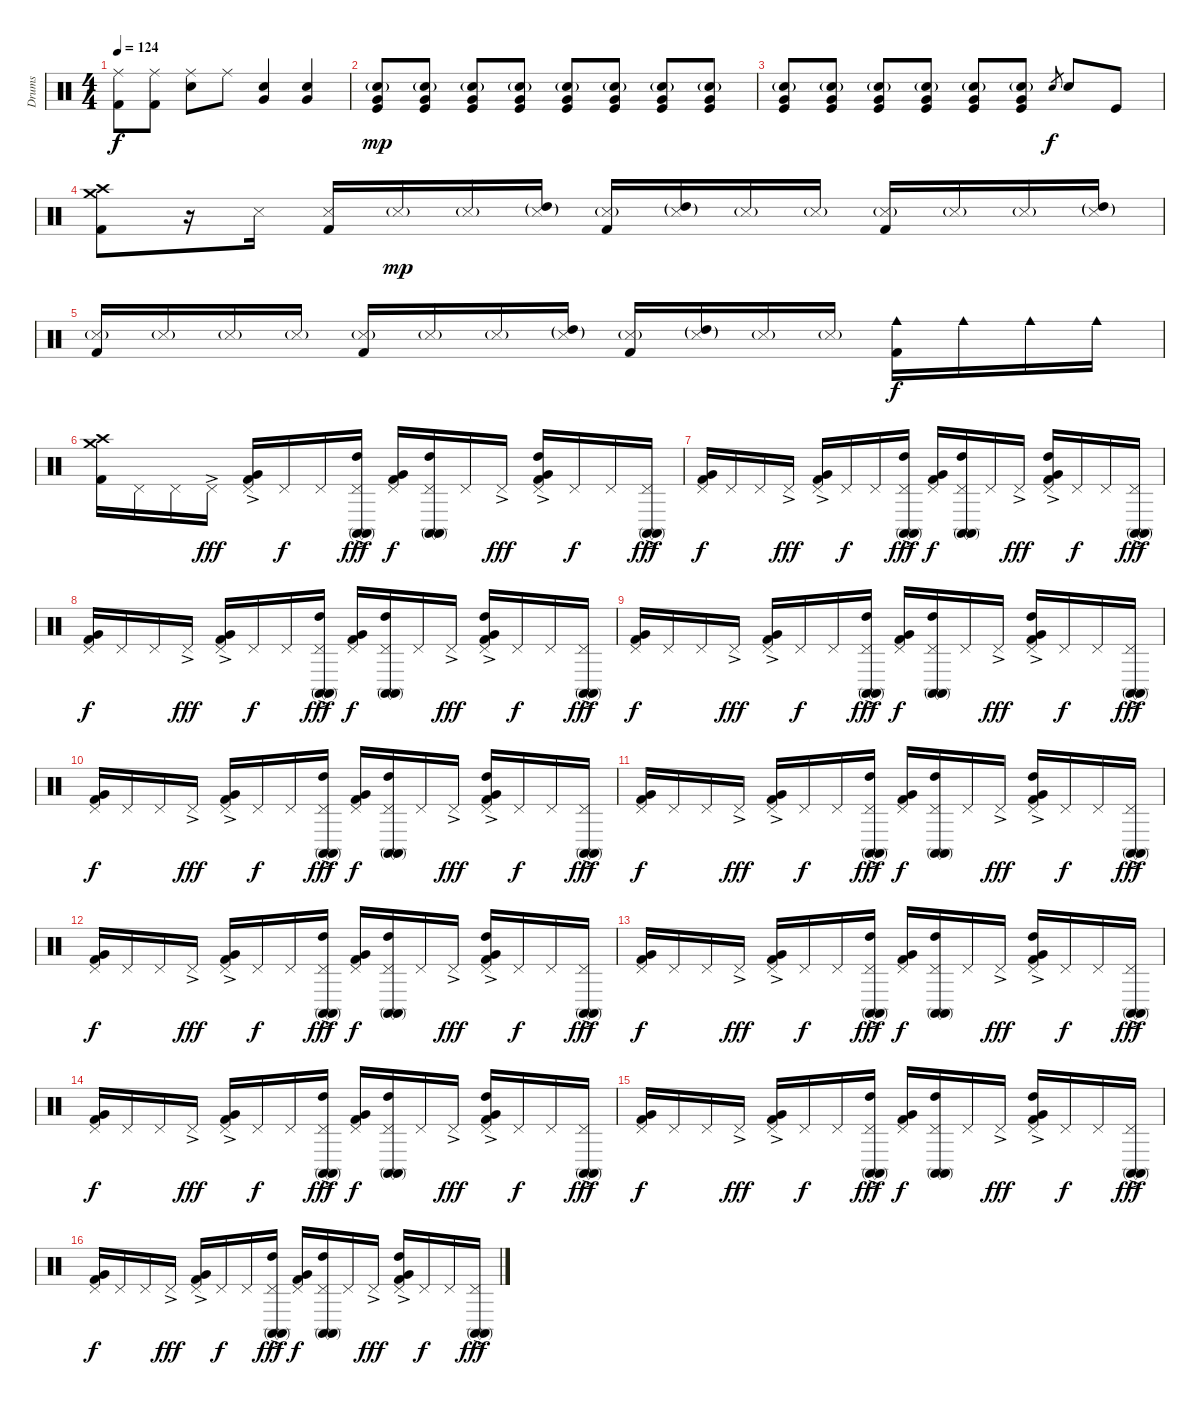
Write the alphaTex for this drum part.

\track ("Drums" "Drums") {instrument percussion}
\staff {score}
\articulation defaults
\ts (4 4)
\tempo 124
\clef neutral
\ks c
("Ride (middle)" "Kick (hit) 2").8{dy f} ("Ride (middle)" "Kick (hit) 2").8 ("Ride (middle)" "Snare (hit) 2").8 "Ride (middle)".8 ("Very Low Tom (hit)" "Snare (hit) 2").4 ("Very Low Tom (hit)" "Snare (hit) 2").4 |
("Very Low Tom (hit)" "Kick (hit)" "Electric Snare (hit)"{g}).8{dy mp} ("Very Low Tom (hit)" "Kick (hit)" "Electric Snare (hit)"{g}).8 ("Very Low Tom (hit)" "Kick (hit)" "Electric Snare (hit)"{g}).8 ("Very Low Tom (hit)" "Kick (hit)" "Electric Snare (hit)"{g}).8 ("Very Low Tom (hit)" "Kick (hit)" "Electric Snare (hit)"{g}).8 ("Very Low Tom (hit)" "Kick (hit)" "Electric Snare (hit)"{g}).8 ("Very Low Tom (hit)" "Kick (hit)" "Electric Snare (hit)"{g}).8 ("Very Low Tom (hit)" "Kick (hit)" "Electric Snare (hit)"{g}).8 |
("Very Low Tom (hit)" "Kick (hit)" "Electric Snare (hit)"{g}).8 ("Very Low Tom (hit)" "Kick (hit)" "Electric Snare (hit)"{g}).8 ("Very Low Tom (hit)" "Kick (hit)" "Electric Snare (hit)"{g}).8 ("Very Low Tom (hit)" "Kick (hit)" "Electric Snare (hit)"{g}).8 ("Very Low Tom (hit)" "Kick (hit)" "Electric Snare (hit)"{g}).8 ("Very Low Tom (hit)" "Kick (hit)" "Electric Snare (hit)"{g}).8 "Snare (hit) 2".8{gr dy f} "Snare (hit) 2".8 "Kick (hit)".8 |
\section ("" "")
("Crash high (hit)" "Crash medium (hit)" "Kick (hit) 2").8 r.16 "Metronome (hit)".16 ("Metronome (hit)" "Kick (hit) 2").16 "Metronome (hit)"{g}.16{dy mp} "Metronome (hit)"{g}.16 ("Metronome (hit)"{g} "High Tom (hit)"{g}).16 ("Metronome (hit)"{g} "Kick (hit) 2").16 ("Metronome (hit)"{g} "High Tom (hit)"{g}).16 "Metronome (hit)"{g}.16 "Metronome (hit)"{g}.16 ("Metronome (hit)"{g} "Kick (hit) 2").16 "Metronome (hit)"{g}.16 "Metronome (hit)"{g}.16 ("Metronome (hit)"{g} "High Tom (hit)"{g}).16 |
("Metronome (hit)"{g} "Kick (hit) 2").16 "Metronome (hit)"{g}.16 "Metronome (hit)"{g}.16 "Metronome (hit)"{g}.16 ("Metronome (hit)"{g} "Kick (hit) 2").16 "Metronome (hit)"{g}.16 "Metronome (hit)"{g}.16 ("Metronome (hit)"{g} "High Tom (hit)"{g}).16 ("Metronome (hit)"{g} "Kick (hit) 2").16 ("Metronome (hit)"{g} "High Tom (hit)"{g}).16 "Metronome (hit)"{g}.16 "Metronome (hit)"{g}.16 ("Cowbell medium (hit)" "Kick (hit) 2").16{dy f} "Cowbell medium (hit)".16 "Cowbell medium (hit)".16 "Cowbell medium (hit)".16 |
("Crash high (hit)" "Crash medium (hit)" "Kick (hit) 2").16 "Pedal Hi-Hat (hit)".16 "Pedal Hi-Hat (hit)".16 "Pedal Hi-Hat (hit)"{ac}.16{dy fff} ("Pedal Hi-Hat (hit)"{ac} "Kick (hit) 2" "Very Low Tom (hit)").16 "Pedal Hi-Hat (hit)".16{dy f} "Pedal Hi-Hat (hit)".16 ("Pedal Hi-Hat (hit)"{ac} "Conga high (mute)" "Conga high (mute)" "High Tom (hit)").16{dy fff} ("Pedal Hi-Hat (hit)" "Kick (hit) 2" "Very Low Tom (hit)").16{dy f} ("Pedal Hi-Hat (hit)" "Conga high (mute)" "Conga high (mute)" "High Tom (hit)").16 "Pedal Hi-Hat (hit)".16 "Pedal Hi-Hat (hit)"{ac}.16{dy fff} ("Pedal Hi-Hat (hit)"{ac} "Kick (hit) 2" "Very Low Tom (hit)" "High Tom (hit)").16 "Pedal Hi-Hat (hit)".16{dy f} "Pedal Hi-Hat (hit)".16 ("Pedal Hi-Hat (hit)"{ac} "Conga high (mute)" "Conga high (mute)").16{dy fff} |
("Pedal Hi-Hat (hit)" "Kick (hit) 2" "Very Low Tom (hit)").16{dy f} "Pedal Hi-Hat (hit)".16 "Pedal Hi-Hat (hit)".16 "Pedal Hi-Hat (hit)"{ac}.16{dy fff} ("Pedal Hi-Hat (hit)"{ac} "Kick (hit) 2" "Very Low Tom (hit)").16 "Pedal Hi-Hat (hit)".16{dy f} "Pedal Hi-Hat (hit)".16 ("Pedal Hi-Hat (hit)"{ac} "Conga high (mute)" "Conga high (mute)" "High Tom (hit)").16{dy fff} ("Pedal Hi-Hat (hit)" "Kick (hit) 2" "Very Low Tom (hit)").16{dy f} ("Pedal Hi-Hat (hit)" "Conga high (mute)" "Conga high (mute)" "High Tom (hit)").16 "Pedal Hi-Hat (hit)".16 "Pedal Hi-Hat (hit)"{ac}.16{dy fff} ("Pedal Hi-Hat (hit)"{ac} "Kick (hit) 2" "Very Low Tom (hit)" "High Tom (hit)").16 "Pedal Hi-Hat (hit)".16{dy f} "Pedal Hi-Hat (hit)".16 ("Pedal Hi-Hat (hit)"{ac} "Conga high (mute)" "Conga high (mute)").16{dy fff} |
("Pedal Hi-Hat (hit)" "Kick (hit) 2" "Very Low Tom (hit)").16{dy f} "Pedal Hi-Hat (hit)".16 "Pedal Hi-Hat (hit)".16 "Pedal Hi-Hat (hit)"{ac}.16{dy fff} ("Pedal Hi-Hat (hit)"{ac} "Kick (hit) 2" "Very Low Tom (hit)").16 "Pedal Hi-Hat (hit)".16{dy f} "Pedal Hi-Hat (hit)".16 ("Pedal Hi-Hat (hit)"{ac} "Conga high (mute)" "Conga high (mute)" "High Tom (hit)").16{dy fff} ("Pedal Hi-Hat (hit)" "Kick (hit) 2" "Very Low Tom (hit)").16{dy f} ("Pedal Hi-Hat (hit)" "Conga high (mute)" "Conga high (mute)" "High Tom (hit)").16 "Pedal Hi-Hat (hit)".16 "Pedal Hi-Hat (hit)"{ac}.16{dy fff} ("Pedal Hi-Hat (hit)"{ac} "Kick (hit) 2" "Very Low Tom (hit)" "High Tom (hit)").16 "Pedal Hi-Hat (hit)".16{dy f} "Pedal Hi-Hat (hit)".16 ("Pedal Hi-Hat (hit)"{ac} "Conga high (mute)" "Conga high (mute)").16{dy fff} |
("Pedal Hi-Hat (hit)" "Kick (hit) 2" "Very Low Tom (hit)").16{dy f} "Pedal Hi-Hat (hit)".16 "Pedal Hi-Hat (hit)".16 "Pedal Hi-Hat (hit)"{ac}.16{dy fff} ("Pedal Hi-Hat (hit)"{ac} "Kick (hit) 2" "Very Low Tom (hit)").16 "Pedal Hi-Hat (hit)".16{dy f} "Pedal Hi-Hat (hit)".16 ("Pedal Hi-Hat (hit)"{ac} "Conga high (mute)" "Conga high (mute)" "High Tom (hit)").16{dy fff} ("Pedal Hi-Hat (hit)" "Kick (hit) 2" "Very Low Tom (hit)").16{dy f} ("Pedal Hi-Hat (hit)" "Conga high (mute)" "Conga high (mute)" "High Tom (hit)").16 "Pedal Hi-Hat (hit)".16 "Pedal Hi-Hat (hit)"{ac}.16{dy fff} ("Pedal Hi-Hat (hit)"{ac} "Kick (hit) 2" "Very Low Tom (hit)" "High Tom (hit)").16 "Pedal Hi-Hat (hit)".16{dy f} "Pedal Hi-Hat (hit)".16 ("Pedal Hi-Hat (hit)"{ac} "Conga high (mute)" "Conga high (mute)").16{dy fff} |
("Pedal Hi-Hat (hit)" "Kick (hit) 2" "Very Low Tom (hit)").16{dy f} "Pedal Hi-Hat (hit)".16 "Pedal Hi-Hat (hit)".16 "Pedal Hi-Hat (hit)"{ac}.16{dy fff} ("Pedal Hi-Hat (hit)"{ac} "Kick (hit) 2" "Very Low Tom (hit)").16 "Pedal Hi-Hat (hit)".16{dy f} "Pedal Hi-Hat (hit)".16 ("Pedal Hi-Hat (hit)"{ac} "Conga high (mute)" "Conga high (mute)" "High Tom (hit)").16{dy fff} ("Pedal Hi-Hat (hit)" "Kick (hit) 2" "Very Low Tom (hit)").16{dy f} ("Pedal Hi-Hat (hit)" "Conga high (mute)" "Conga high (mute)" "High Tom (hit)").16 "Pedal Hi-Hat (hit)".16 "Pedal Hi-Hat (hit)"{ac}.16{dy fff} ("Pedal Hi-Hat (hit)"{ac} "Kick (hit) 2" "Very Low Tom (hit)" "High Tom (hit)").16 "Pedal Hi-Hat (hit)".16{dy f} "Pedal Hi-Hat (hit)".16 ("Pedal Hi-Hat (hit)"{ac} "Conga high (mute)" "Conga high (mute)").16{dy fff} |
("Pedal Hi-Hat (hit)" "Kick (hit) 2" "Very Low Tom (hit)").16{dy f} "Pedal Hi-Hat (hit)".16 "Pedal Hi-Hat (hit)".16 "Pedal Hi-Hat (hit)"{ac}.16{dy fff} ("Pedal Hi-Hat (hit)"{ac} "Kick (hit) 2" "Very Low Tom (hit)").16 "Pedal Hi-Hat (hit)".16{dy f} "Pedal Hi-Hat (hit)".16 ("Pedal Hi-Hat (hit)"{ac} "Conga high (mute)" "Conga high (mute)" "High Tom (hit)").16{dy fff} ("Pedal Hi-Hat (hit)" "Kick (hit) 2" "Very Low Tom (hit)").16{dy f} ("Pedal Hi-Hat (hit)" "Conga high (mute)" "Conga high (mute)" "High Tom (hit)").16 "Pedal Hi-Hat (hit)".16 "Pedal Hi-Hat (hit)"{ac}.16{dy fff} ("Pedal Hi-Hat (hit)"{ac} "Kick (hit) 2" "Very Low Tom (hit)" "High Tom (hit)").16 "Pedal Hi-Hat (hit)".16{dy f} "Pedal Hi-Hat (hit)".16 ("Pedal Hi-Hat (hit)"{ac} "Conga high (mute)" "Conga high (mute)").16{dy fff} |
("Pedal Hi-Hat (hit)" "Kick (hit) 2" "Very Low Tom (hit)").16{dy f} "Pedal Hi-Hat (hit)".16 "Pedal Hi-Hat (hit)".16 "Pedal Hi-Hat (hit)"{ac}.16{dy fff} ("Pedal Hi-Hat (hit)"{ac} "Kick (hit) 2" "Very Low Tom (hit)").16 "Pedal Hi-Hat (hit)".16{dy f} "Pedal Hi-Hat (hit)".16 ("Pedal Hi-Hat (hit)"{ac} "Conga high (mute)" "Conga high (mute)" "High Tom (hit)").16{dy fff} ("Pedal Hi-Hat (hit)" "Kick (hit) 2" "Very Low Tom (hit)").16{dy f} ("Pedal Hi-Hat (hit)" "Conga high (mute)" "Conga high (mute)" "High Tom (hit)").16 "Pedal Hi-Hat (hit)".16 "Pedal Hi-Hat (hit)"{ac}.16{dy fff} ("Pedal Hi-Hat (hit)"{ac} "Kick (hit) 2" "Very Low Tom (hit)" "High Tom (hit)").16 "Pedal Hi-Hat (hit)".16{dy f} "Pedal Hi-Hat (hit)".16 ("Pedal Hi-Hat (hit)"{ac} "Conga high (mute)" "Conga high (mute)").16{dy fff} |
("Pedal Hi-Hat (hit)" "Kick (hit) 2" "Very Low Tom (hit)").16{dy f} "Pedal Hi-Hat (hit)".16 "Pedal Hi-Hat (hit)".16 "Pedal Hi-Hat (hit)"{ac}.16{dy fff} ("Pedal Hi-Hat (hit)"{ac} "Kick (hit) 2" "Very Low Tom (hit)").16 "Pedal Hi-Hat (hit)".16{dy f} "Pedal Hi-Hat (hit)".16 ("Pedal Hi-Hat (hit)"{ac} "Conga high (mute)" "Conga high (mute)" "High Tom (hit)").16{dy fff} ("Pedal Hi-Hat (hit)" "Kick (hit) 2" "Very Low Tom (hit)").16{dy f} ("Pedal Hi-Hat (hit)" "Conga high (mute)" "Conga high (mute)" "High Tom (hit)").16 "Pedal Hi-Hat (hit)".16 "Pedal Hi-Hat (hit)"{ac}.16{dy fff} ("Pedal Hi-Hat (hit)"{ac} "Kick (hit) 2" "Very Low Tom (hit)" "High Tom (hit)").16 "Pedal Hi-Hat (hit)".16{dy f} "Pedal Hi-Hat (hit)".16 ("Pedal Hi-Hat (hit)"{ac} "Conga high (mute)" "Conga high (mute)").16{dy fff} |
("Pedal Hi-Hat (hit)" "Kick (hit) 2" "Very Low Tom (hit)").16{dy f} "Pedal Hi-Hat (hit)".16 "Pedal Hi-Hat (hit)".16 "Pedal Hi-Hat (hit)"{ac}.16{dy fff} ("Pedal Hi-Hat (hit)"{ac} "Kick (hit) 2" "Very Low Tom (hit)").16 "Pedal Hi-Hat (hit)".16{dy f} "Pedal Hi-Hat (hit)".16 ("Pedal Hi-Hat (hit)"{ac} "Conga high (mute)" "Conga high (mute)" "High Tom (hit)").16{dy fff} ("Pedal Hi-Hat (hit)" "Kick (hit) 2" "Very Low Tom (hit)").16{dy f} ("Pedal Hi-Hat (hit)" "Conga high (mute)" "Conga high (mute)" "High Tom (hit)").16 "Pedal Hi-Hat (hit)".16 "Pedal Hi-Hat (hit)"{ac}.16{dy fff} ("Pedal Hi-Hat (hit)"{ac} "Kick (hit) 2" "Very Low Tom (hit)" "High Tom (hit)").16 "Pedal Hi-Hat (hit)".16{dy f} "Pedal Hi-Hat (hit)".16 ("Pedal Hi-Hat (hit)"{ac} "Conga high (mute)" "Conga high (mute)").16{dy fff} |
("Pedal Hi-Hat (hit)" "Kick (hit) 2" "Very Low Tom (hit)").16{dy f} "Pedal Hi-Hat (hit)".16 "Pedal Hi-Hat (hit)".16 "Pedal Hi-Hat (hit)"{ac}.16{dy fff} ("Pedal Hi-Hat (hit)"{ac} "Kick (hit) 2" "Very Low Tom (hit)").16 "Pedal Hi-Hat (hit)".16{dy f} "Pedal Hi-Hat (hit)".16 ("Pedal Hi-Hat (hit)"{ac} "Conga high (mute)" "Conga high (mute)" "High Tom (hit)").16{dy fff} ("Pedal Hi-Hat (hit)" "Kick (hit) 2" "Very Low Tom (hit)").16{dy f} ("Pedal Hi-Hat (hit)" "Conga high (mute)" "Conga high (mute)" "High Tom (hit)").16 "Pedal Hi-Hat (hit)".16 "Pedal Hi-Hat (hit)"{ac}.16{dy fff} ("Pedal Hi-Hat (hit)"{ac} "Kick (hit) 2" "Very Low Tom (hit)" "High Tom (hit)").16 "Pedal Hi-Hat (hit)".16{dy f} "Pedal Hi-Hat (hit)".16 ("Pedal Hi-Hat (hit)"{ac} "Conga high (mute)" "Conga high (mute)").16{dy fff} |
("Pedal Hi-Hat (hit)" "Kick (hit) 2" "Very Low Tom (hit)").16{dy f} "Pedal Hi-Hat (hit)".16 "Pedal Hi-Hat (hit)".16 "Pedal Hi-Hat (hit)"{ac}.16{dy fff} ("Pedal Hi-Hat (hit)"{ac} "Kick (hit) 2" "Very Low Tom (hit)").16 "Pedal Hi-Hat (hit)".16{dy f} "Pedal Hi-Hat (hit)".16 ("Pedal Hi-Hat (hit)"{ac} "Conga high (mute)" "Conga high (mute)" "High Tom (hit)").16{dy fff} ("Pedal Hi-Hat (hit)" "Kick (hit) 2" "Very Low Tom (hit)").16{dy f} ("Pedal Hi-Hat (hit)" "Conga high (mute)" "Conga high (mute)" "High Tom (hit)").16 "Pedal Hi-Hat (hit)".16 "Pedal Hi-Hat (hit)"{ac}.16{dy fff} ("Pedal Hi-Hat (hit)"{ac} "Kick (hit) 2" "Very Low Tom (hit)" "High Tom (hit)").16 "Pedal Hi-Hat (hit)".16{dy f} "Pedal Hi-Hat (hit)".16 ("Pedal Hi-Hat (hit)"{ac} "Conga high (mute)" "Conga high (mute)").16{dy fff}
